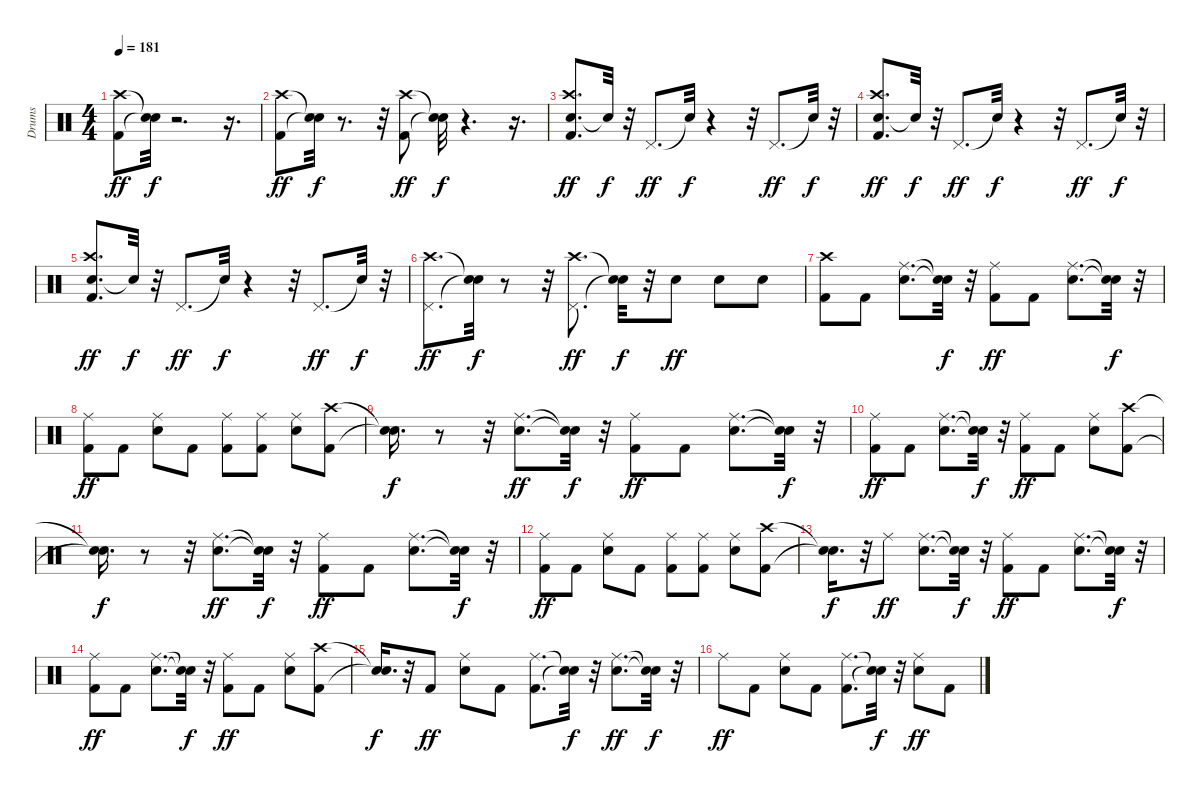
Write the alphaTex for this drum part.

\track ("Drums" "Drums") {instrument percussion}
\staff {score}
\articulation defaults
\ts (4 4)
\tempo 181
\clef neutral
\ks c
("Kick (hit) 2" "Crash high (hit)").8{dy ff} ("Snare (hit)"{t} "Snare (hit)"{t}).32{dy f} r.2{d} r.16{d} |
("Kick (hit) 2" "Crash high (hit)").8{dy ff} ("Snare (hit)"{t} "Snare (hit)"{t}).32{dy f} r.8{d} r.32 ("Kick (hit) 2" "Crash high (hit)").8{dy ff} ("Snare (hit)"{t} "Snare (hit)"{t}).32{dy f} r.4{d} r.16{d} |
("Snare (hit)" "Kick (hit) 2" "Crash high (hit)").8{d dy ff} "Snare (hit)"{t}.32{dy f} r.32 "Pedal Hi-Hat (hit)".8{d dy ff} "Snare (hit)"{t}.32{dy f} r.4 r.32 "Pedal Hi-Hat (hit)".8{d dy ff} "Snare (hit)"{t}.32{dy f} r.32 |
("Snare (hit)" "Kick (hit) 2" "Crash high (hit)").8{d dy ff} "Snare (hit)"{t}.32{dy f} r.32 "Pedal Hi-Hat (hit)".8{d dy ff} "Snare (hit)"{t}.32{dy f} r.4 r.32 "Pedal Hi-Hat (hit)".8{d dy ff} "Snare (hit)"{t}.32{dy f} r.32 |
("Snare (hit)" "Kick (hit) 2" "Crash high (hit)").8{d dy ff} "Snare (hit)"{t}.32{dy f} r.32 "Pedal Hi-Hat (hit)".8{d dy ff} "Snare (hit)"{t}.32{dy f} r.4 r.32 "Pedal Hi-Hat (hit)".8{d dy ff} "Snare (hit)"{t}.32{dy f} r.32 |
("Pedal Hi-Hat (hit)" "Crash high (hit)").8{d dy ff} ("Snare (hit)"{t} "Snare (hit)"{t}).32{dy f} r.8 r.32 ("Pedal Hi-Hat (hit)" "Crash high (hit)").8{d dy ff} ("Snare (hit)"{t} "Snare (hit)"{t}).32{dy f} r.32 "Snare (hit) 2".8{dy ff} "Snare (hit) 2".8 "Snare (hit) 2".8 |
("Kick (hit) 2" "Crash high (hit)").8 "Kick (hit) 2".8 ("Snare (hit) 2" "Ride (middle)").8{d} ("Snare (hit)"{t} "Snare (hit)"{t}).32{dy f} r.32 ("Kick (hit) 2" "Ride (middle)").8{dy ff} "Kick (hit) 2".8 ("Snare (hit) 2" "Ride (middle)").8{d} ("Snare (hit)"{t} "Snare (hit)"{t}).32{dy f} r.32 |
("Kick (hit) 2" "Ride (middle)").8{dy ff} "Kick (hit) 2".8 ("Snare (hit) 2" "Ride (middle)").8 "Kick (hit) 2".8 ("Kick (hit) 2" "Ride (middle)").8 ("Kick (hit) 2" "Ride (middle)").8 ("Snare (hit) 2" "Ride (middle)").8 ("Kick (hit) 2" "Crash high (hit)").8 |
("Snare (hit)"{t} "Snare (hit)"{t}).16{d dy f} r.8 r.32 ("Snare (hit) 2" "Ride (middle)").8{d dy ff} ("Snare (hit)"{t} "Snare (hit)"{t}).32{dy f} r.32 ("Kick (hit) 2" "Ride (middle)").8{dy ff} "Kick (hit) 2".8 ("Snare (hit) 2" "Ride (middle)").8{d} ("Snare (hit)"{t} "Snare (hit)"{t}).32{dy f} r.32 |
("Kick (hit) 2" "Ride (middle)").8{dy ff} "Kick (hit) 2".8 ("Snare (hit) 2" "Ride (middle)").8{d} ("Snare (hit)"{t} "Snare (hit)"{t}).32{dy f} r.32 ("Kick (hit) 2" "Ride (middle)").8{dy ff} "Kick (hit) 2".8 ("Snare (hit) 2" "Ride (middle)").8 ("Kick (hit) 2" "Crash high (hit)").8 |
("Snare (hit)"{t} "Snare (hit)"{t}).16{d dy f} r.8 r.32 ("Snare (hit) 2" "Ride (middle)").8{d dy ff} ("Snare (hit)"{t} "Snare (hit)"{t}).32{dy f} r.32 ("Kick (hit) 2" "Ride (middle)").8{dy ff} "Kick (hit) 2".8 ("Snare (hit) 2" "Ride (middle)").8{d} ("Snare (hit)"{t} "Snare (hit)"{t}).32{dy f} r.32 |
("Kick (hit) 2" "Ride (middle)").8{dy ff} "Kick (hit) 2".8 ("Snare (hit) 2" "Ride (middle)").8 "Kick (hit) 2".8 ("Kick (hit) 2" "Ride (middle)").8 ("Kick (hit) 2" "Ride (middle)").8 ("Snare (hit) 2" "Ride (middle)").8 ("Kick (hit) 2" "Crash high (hit)").8 |
("Snare (hit)"{t} "Snare (hit)"{t}).16{d dy f} r.32 "Ride (middle)".8{dy ff} ("Snare (hit) 2" "Ride (middle)").8{d} ("Snare (hit)"{t} "Snare (hit)"{t}).32{dy f} r.32 ("Kick (hit) 2" "Ride (middle)").8{dy ff} "Kick (hit) 2".8 ("Snare (hit) 2" "Ride (middle)").8{d} ("Snare (hit)"{t} "Snare (hit)"{t}).32{dy f} r.32 |
("Kick (hit) 2" "Ride (middle)").8{dy ff} "Kick (hit) 2".8 ("Snare (hit) 2" "Ride (middle)").8{d} ("Snare (hit)"{t} "Snare (hit)"{t}).32{dy f} r.32 ("Kick (hit) 2" "Ride (middle)").8{dy ff} "Kick (hit) 2".8 ("Snare (hit) 2" "Ride (middle)").8 ("Kick (hit) 2" "Crash high (hit)").8 |
("Snare (hit)"{t} "Snare (hit)"{t}).16{d dy f} r.32 "Kick (hit) 2".8{dy ff} ("Snare (hit) 2" "Ride (middle)").8 "Kick (hit) 2".8 ("Kick (hit) 2" "Ride (middle)").8{d} ("Snare (hit)"{t} "Snare (hit)"{t}).32{dy f} r.32 ("Snare (hit) 2" "Ride (middle)").8{d dy ff} ("Snare (hit)"{t} "Snare (hit)"{t}).32{dy f} r.32 |
"Ride (middle)".8{dy ff} "Kick (hit) 2".8 ("Snare (hit) 2" "Ride (middle)").8 "Kick (hit) 2".8 ("Kick (hit) 2" "Ride (middle)").8{d} ("Snare (hit)"{t} "Snare (hit)"{t}).32{dy f} r.32 ("Snare (hit) 2" "Ride (middle)").8{dy ff} "Kick (hit) 2".8
